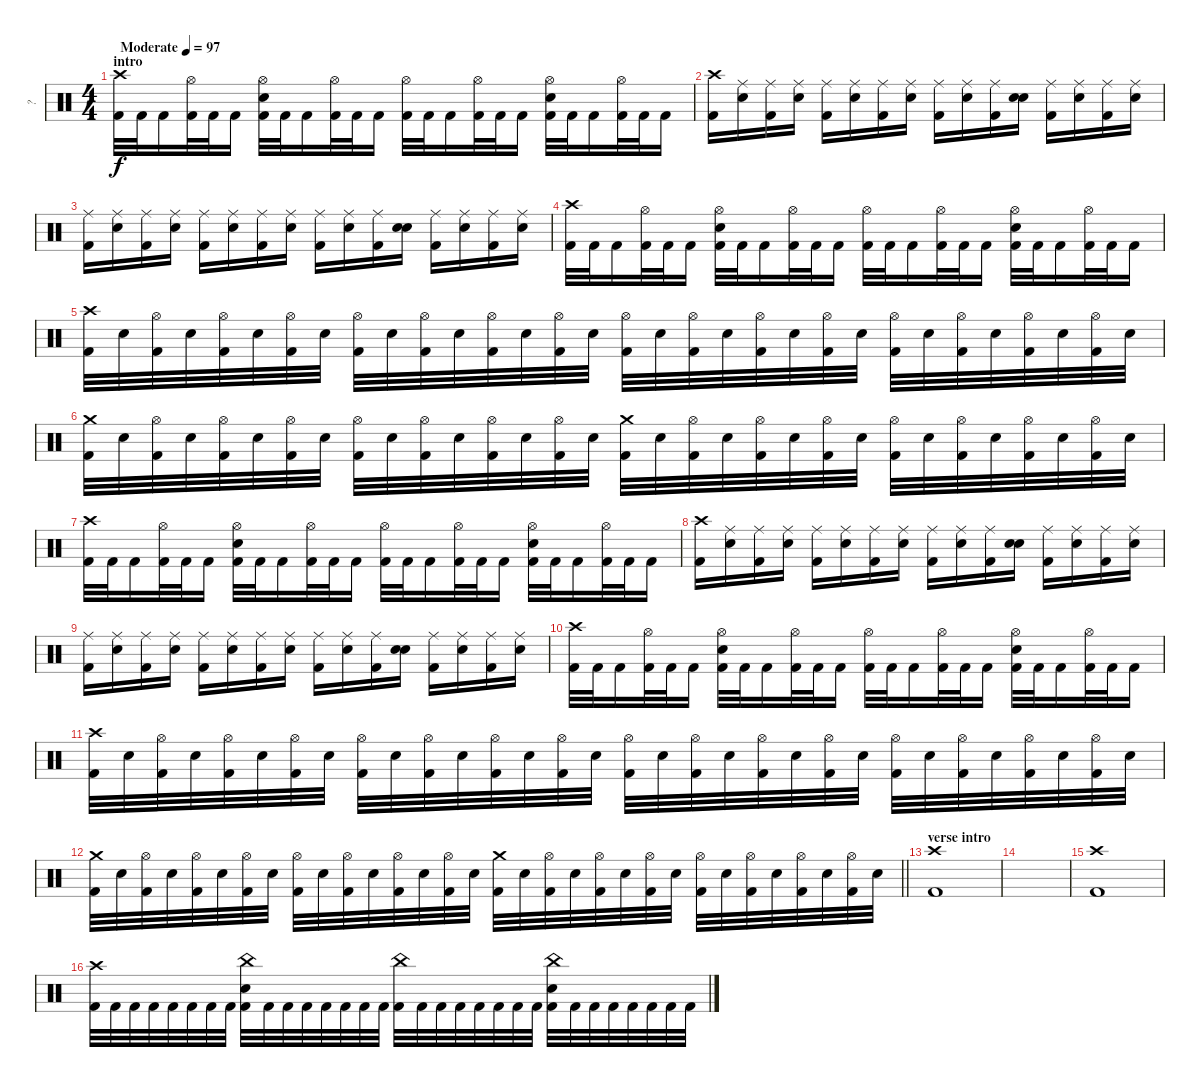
\track ("?" "?") {instrument percussion}
\staff {score}
\articulation defaults
\ts (4 4)
\section ("" "intro")
\tempo (97 "Moderate")
\clef neutral
\ks c
("Crash high (hit)" "Kick (hit) 2").32{dy f} "Kick (hit) 2".32 "Kick (hit) 2".16 ("Hi-Hat (open)" "Kick (hit) 2").32 "Kick (hit) 2".32 "Kick (hit) 2".16 ("Hi-Hat (open)" "Electric Snare (hit)" "Kick (hit) 2").32 "Kick (hit) 2".32 "Kick (hit) 2".16 ("Hi-Hat (open)" "Kick (hit) 2").32 "Kick (hit) 2".32 "Kick (hit) 2".16 ("Hi-Hat (open)" "Kick (hit) 2").32 "Kick (hit) 2".32 "Kick (hit) 2".16 ("Hi-Hat (open)" "Kick (hit) 2").32 "Kick (hit) 2".32 "Kick (hit) 2".16 ("Hi-Hat (open)" "Electric Snare (hit)" "Kick (hit) 2").32 "Kick (hit) 2".32 "Kick (hit) 2".16 ("Hi-Hat (open)" "Kick (hit) 2").32 "Kick (hit) 2".32 "Kick (hit) 2".16 |
("Crash high (hit)" "Kick (hit) 2").16 ("Ride (middle)" "Electric Snare (hit)").16 ("Ride (middle)" "Kick (hit) 2").16 ("Ride (middle)" "Electric Snare (hit)").16 ("Ride (middle)" "Kick (hit) 2").16 ("Ride (middle)" "Electric Snare (hit)").16 ("Ride (middle)" "Kick (hit) 2").16 ("Ride (middle)" "Electric Snare (hit)").16 ("Ride (middle)" "Kick (hit) 2").16 ("Ride (middle)" "Electric Snare (hit)").16 ("Ride (middle)" "Kick (hit) 2").16 ("Snare (hit)" "Electric Snare (hit)").16 ("Ride (middle)" "Kick (hit) 2").16 ("Ride (middle)" "Electric Snare (hit)").16 ("Ride (middle)" "Kick (hit) 2").16 ("Ride (middle)" "Electric Snare (hit)").16 |
("Ride (middle)" "Kick (hit) 2").16 ("Ride (middle)" "Electric Snare (hit)").16 ("Ride (middle)" "Kick (hit) 2").16 ("Ride (middle)" "Electric Snare (hit)").16 ("Ride (middle)" "Kick (hit) 2").16 ("Ride (middle)" "Electric Snare (hit)").16 ("Ride (middle)" "Kick (hit) 2").16 ("Ride (middle)" "Electric Snare (hit)").16 ("Ride (middle)" "Kick (hit) 2").16 ("Ride (middle)" "Electric Snare (hit)").16 ("Ride (middle)" "Kick (hit) 2").16 ("Snare (hit)" "Electric Snare (hit)").16 ("Ride (middle)" "Kick (hit) 2").16 ("Ride (middle)" "Electric Snare (hit)").16 ("Ride (middle)" "Kick (hit) 2").16 ("Ride (middle)" "Electric Snare (hit)").16 |
("Crash high (hit)" "Kick (hit) 2").32 "Kick (hit) 2".32 "Kick (hit) 2".16 ("Hi-Hat (open)" "Kick (hit) 2").32 "Kick (hit) 2".32 "Kick (hit) 2".16 ("Hi-Hat (open)" "Electric Snare (hit)" "Kick (hit) 2").32 "Kick (hit) 2".32 "Kick (hit) 2".16 ("Hi-Hat (open)" "Kick (hit) 2").32 "Kick (hit) 2".32 "Kick (hit) 2".16 ("Hi-Hat (open)" "Kick (hit) 2").32 "Kick (hit) 2".32 "Kick (hit) 2".16 ("Hi-Hat (open)" "Kick (hit) 2").32 "Kick (hit) 2".32 "Kick (hit) 2".16 ("Hi-Hat (open)" "Electric Snare (hit)" "Kick (hit) 2").32 "Kick (hit) 2".32 "Kick (hit) 2".16 ("Hi-Hat (open)" "Kick (hit) 2").32 "Kick (hit) 2".32 "Kick (hit) 2".16 |
("Crash high (hit)" "Kick (hit) 2").32 "Electric Snare (hit)".32 ("Hi-Hat (open)" "Kick (hit) 2").32 "Electric Snare (hit)".32 ("Hi-Hat (open)" "Kick (hit) 2").32 "Electric Snare (hit)".32 ("Hi-Hat (open)" "Kick (hit) 2").32 "Electric Snare (hit)".32 ("Hi-Hat (open)" "Kick (hit) 2").32 "Electric Snare (hit)".32 ("Hi-Hat (open)" "Kick (hit) 2").32 "Electric Snare (hit)".32 ("Hi-Hat (open)" "Kick (hit) 2").32 "Electric Snare (hit)".32 ("Hi-Hat (open)" "Kick (hit) 2").32 "Electric Snare (hit)".32 ("Hi-Hat (open)" "Kick (hit) 2").32 "Electric Snare (hit)".32 ("Hi-Hat (open)" "Kick (hit) 2").32 "Electric Snare (hit)".32 ("Hi-Hat (open)" "Kick (hit) 2").32 "Electric Snare (hit)".32 ("Hi-Hat (open)" "Kick (hit) 2").32 "Electric Snare (hit)".32 ("Hi-Hat (open)" "Kick (hit) 2").32 "Electric Snare (hit)".32 ("Hi-Hat (open)" "Kick (hit) 2").32 "Electric Snare (hit)".32 ("Hi-Hat (open)" "Kick (hit) 2").32 "Electric Snare (hit)".32 ("Hi-Hat (open)" "Kick (hit) 2").32 "Electric Snare (hit)".32 |
("Crash medium (hit)" "Kick (hit) 2").32 "Electric Snare (hit)".32 ("Hi-Hat (open)" "Kick (hit) 2").32 "Electric Snare (hit)".32 ("Hi-Hat (open)" "Kick (hit) 2").32 "Electric Snare (hit)".32 ("Hi-Hat (open)" "Kick (hit) 2").32 "Electric Snare (hit)".32 ("Hi-Hat (open)" "Kick (hit) 2").32 "Electric Snare (hit)".32 ("Hi-Hat (open)" "Kick (hit) 2").32 "Electric Snare (hit)".32 ("Hi-Hat (open)" "Kick (hit) 2").32 "Electric Snare (hit)".32 ("Hi-Hat (open)" "Kick (hit) 2").32 "Electric Snare (hit)".32 ("Crash medium (hit)" "Kick (hit) 2").32 "Electric Snare (hit)".32 ("Hi-Hat (open)" "Kick (hit) 2").32 "Electric Snare (hit)".32 ("Hi-Hat (open)" "Kick (hit) 2").32 "Electric Snare (hit)".32 ("Hi-Hat (open)" "Kick (hit) 2").32 "Electric Snare (hit)".32 ("Hi-Hat (open)" "Kick (hit) 2").32 "Electric Snare (hit)".32 ("Hi-Hat (open)" "Kick (hit) 2").32 "Electric Snare (hit)".32 ("Hi-Hat (open)" "Kick (hit) 2").32 "Electric Snare (hit)".32 ("Hi-Hat (open)" "Kick (hit) 2").32 "Electric Snare (hit)".32 |
("Crash high (hit)" "Kick (hit) 2").32 "Kick (hit) 2".32 "Kick (hit) 2".16 ("Hi-Hat (open)" "Kick (hit) 2").32 "Kick (hit) 2".32 "Kick (hit) 2".16 ("Hi-Hat (open)" "Electric Snare (hit)" "Kick (hit) 2").32 "Kick (hit) 2".32 "Kick (hit) 2".16 ("Hi-Hat (open)" "Kick (hit) 2").32 "Kick (hit) 2".32 "Kick (hit) 2".16 ("Hi-Hat (open)" "Kick (hit) 2").32 "Kick (hit) 2".32 "Kick (hit) 2".16 ("Hi-Hat (open)" "Kick (hit) 2").32 "Kick (hit) 2".32 "Kick (hit) 2".16 ("Hi-Hat (open)" "Electric Snare (hit)" "Kick (hit) 2").32 "Kick (hit) 2".32 "Kick (hit) 2".16 ("Hi-Hat (open)" "Kick (hit) 2").32 "Kick (hit) 2".32 "Kick (hit) 2".16 |
("Crash high (hit)" "Kick (hit) 2").16 ("Ride (middle)" "Electric Snare (hit)").16 ("Ride (middle)" "Kick (hit) 2").16 ("Ride (middle)" "Electric Snare (hit)").16 ("Ride (middle)" "Kick (hit) 2").16 ("Ride (middle)" "Electric Snare (hit)").16 ("Ride (middle)" "Kick (hit) 2").16 ("Ride (middle)" "Electric Snare (hit)").16 ("Ride (middle)" "Kick (hit) 2").16 ("Ride (middle)" "Electric Snare (hit)").16 ("Ride (middle)" "Kick (hit) 2").16 ("Snare (hit)" "Electric Snare (hit)").16 ("Ride (middle)" "Kick (hit) 2").16 ("Ride (middle)" "Electric Snare (hit)").16 ("Ride (middle)" "Kick (hit) 2").16 ("Ride (middle)" "Electric Snare (hit)").16 |
("Ride (middle)" "Kick (hit) 2").16 ("Ride (middle)" "Electric Snare (hit)").16 ("Ride (middle)" "Kick (hit) 2").16 ("Ride (middle)" "Electric Snare (hit)").16 ("Ride (middle)" "Kick (hit) 2").16 ("Ride (middle)" "Electric Snare (hit)").16 ("Ride (middle)" "Kick (hit) 2").16 ("Ride (middle)" "Electric Snare (hit)").16 ("Ride (middle)" "Kick (hit) 2").16 ("Ride (middle)" "Electric Snare (hit)").16 ("Ride (middle)" "Kick (hit) 2").16 ("Snare (hit)" "Electric Snare (hit)").16 ("Ride (middle)" "Kick (hit) 2").16 ("Ride (middle)" "Electric Snare (hit)").16 ("Ride (middle)" "Kick (hit) 2").16 ("Ride (middle)" "Electric Snare (hit)").16 |
("Crash high (hit)" "Kick (hit) 2").32 "Kick (hit) 2".32 "Kick (hit) 2".16 ("Hi-Hat (open)" "Kick (hit) 2").32 "Kick (hit) 2".32 "Kick (hit) 2".16 ("Hi-Hat (open)" "Electric Snare (hit)" "Kick (hit) 2").32 "Kick (hit) 2".32 "Kick (hit) 2".16 ("Hi-Hat (open)" "Kick (hit) 2").32 "Kick (hit) 2".32 "Kick (hit) 2".16 ("Hi-Hat (open)" "Kick (hit) 2").32 "Kick (hit) 2".32 "Kick (hit) 2".16 ("Hi-Hat (open)" "Kick (hit) 2").32 "Kick (hit) 2".32 "Kick (hit) 2".16 ("Hi-Hat (open)" "Electric Snare (hit)" "Kick (hit) 2").32 "Kick (hit) 2".32 "Kick (hit) 2".16 ("Hi-Hat (open)" "Kick (hit) 2").32 "Kick (hit) 2".32 "Kick (hit) 2".16 |
("Crash high (hit)" "Kick (hit) 2").32 "Electric Snare (hit)".32 ("Hi-Hat (open)" "Kick (hit) 2").32 "Electric Snare (hit)".32 ("Hi-Hat (open)" "Kick (hit) 2").32 "Electric Snare (hit)".32 ("Hi-Hat (open)" "Kick (hit) 2").32 "Electric Snare (hit)".32 ("Hi-Hat (open)" "Kick (hit) 2").32 "Electric Snare (hit)".32 ("Hi-Hat (open)" "Kick (hit) 2").32 "Electric Snare (hit)".32 ("Hi-Hat (open)" "Kick (hit) 2").32 "Electric Snare (hit)".32 ("Hi-Hat (open)" "Kick (hit) 2").32 "Electric Snare (hit)".32 ("Hi-Hat (open)" "Kick (hit) 2").32 "Electric Snare (hit)".32 ("Hi-Hat (open)" "Kick (hit) 2").32 "Electric Snare (hit)".32 ("Hi-Hat (open)" "Kick (hit) 2").32 "Electric Snare (hit)".32 ("Hi-Hat (open)" "Kick (hit) 2").32 "Electric Snare (hit)".32 ("Hi-Hat (open)" "Kick (hit) 2").32 "Electric Snare (hit)".32 ("Hi-Hat (open)" "Kick (hit) 2").32 "Electric Snare (hit)".32 ("Hi-Hat (open)" "Kick (hit) 2").32 "Electric Snare (hit)".32 ("Hi-Hat (open)" "Kick (hit) 2").32 "Electric Snare (hit)".32 |
\barLineRight lightlight
("Crash medium (hit)" "Kick (hit) 2").32 "Electric Snare (hit)".32 ("Hi-Hat (open)" "Kick (hit) 2").32 "Electric Snare (hit)".32 ("Hi-Hat (open)" "Kick (hit) 2").32 "Electric Snare (hit)".32 ("Hi-Hat (open)" "Kick (hit) 2").32 "Electric Snare (hit)".32 ("Hi-Hat (open)" "Kick (hit) 2").32 "Electric Snare (hit)".32 ("Hi-Hat (open)" "Kick (hit) 2").32 "Electric Snare (hit)".32 ("Hi-Hat (open)" "Kick (hit) 2").32 "Electric Snare (hit)".32 ("Hi-Hat (open)" "Kick (hit) 2").32 "Electric Snare (hit)".32 ("Crash medium (hit)" "Kick (hit) 2").32 "Electric Snare (hit)".32 ("Hi-Hat (open)" "Kick (hit) 2").32 "Electric Snare (hit)".32 ("Hi-Hat (open)" "Kick (hit) 2").32 "Electric Snare (hit)".32 ("Hi-Hat (open)" "Kick (hit) 2").32 "Electric Snare (hit)".32 ("Hi-Hat (open)" "Kick (hit) 2").32 "Electric Snare (hit)".32 ("Hi-Hat (open)" "Kick (hit) 2").32 "Electric Snare (hit)".32 ("Hi-Hat (open)" "Kick (hit) 2").32 "Electric Snare (hit)".32 ("Hi-Hat (open)" "Kick (hit) 2").32 "Electric Snare (hit)".32 |
\section ("" "verse intro")
("Crash high (hit)" "Kick (hit) 2").1 |
|
("Crash high (hit)" "Kick (hit) 2").1 |
("Crash high (hit)" "Kick (hit) 2").32 "Kick (hit) 2".32 "Kick (hit) 2".32 "Kick (hit) 2".32 "Kick (hit) 2".32 "Kick (hit) 2".32 "Kick (hit) 2".32 "Kick (hit) 2".32 ("China (hit)" "Electric Snare (hit)" "Kick (hit) 2").32 "Kick (hit) 2".32 "Kick (hit) 2".32 "Kick (hit) 2".32 "Kick (hit) 2".32 "Kick (hit) 2".32 "Kick (hit) 2".32 "Kick (hit) 2".32 ("China (hit)" "Kick (hit) 2").32 "Kick (hit) 2".32 "Kick (hit) 2".32 "Kick (hit) 2".32 "Kick (hit) 2".32 "Kick (hit) 2".32 "Kick (hit) 2".32 "Kick (hit) 2".32 ("China (hit)" "Electric Snare (hit)" "Kick (hit) 2").32 "Kick (hit) 2".32 "Kick (hit) 2".32 "Kick (hit) 2".32 "Kick (hit) 2".32 "Kick (hit) 2".32 "Kick (hit) 2".32 "Kick (hit) 2".32
